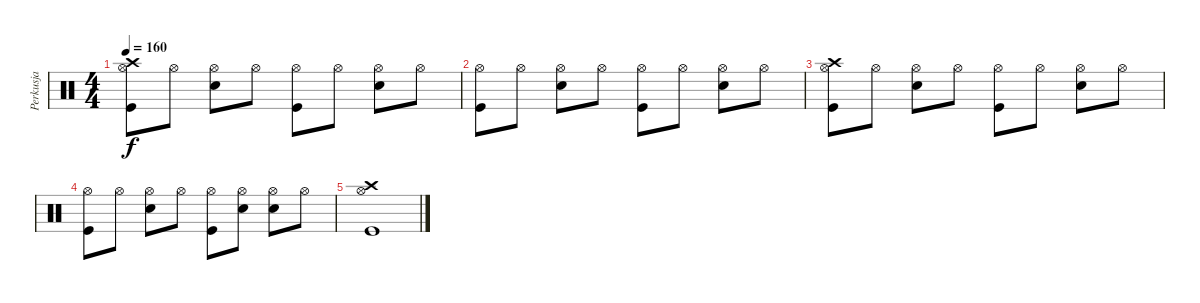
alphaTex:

\track ("Perkusja" "Perkusja") {instrument percussion}
\staff {score}
\articulation defaults
\ts (4 4)
\tempo 160
\clef neutral
\ks c
("Hi-Hat (open)" "Crash high (hit)" "Kick (hit)").8{dy f} "Hi-Hat (open)".8 ("Hi-Hat (open)" "Electric Snare (hit)").8 "Hi-Hat (open)".8 ("Hi-Hat (open)" "Kick (hit)").8 "Hi-Hat (open)".8 ("Hi-Hat (open)" "Electric Snare (hit)").8 "Hi-Hat (open)".8 |
("Hi-Hat (open)" "Kick (hit)").8 "Hi-Hat (open)".8 ("Hi-Hat (open)" "Electric Snare (hit)").8 "Hi-Hat (open)".8 ("Hi-Hat (open)" "Kick (hit)").8 "Hi-Hat (open)".8 ("Hi-Hat (open)" "Electric Snare (hit)").8 "Hi-Hat (open)".8 |
("Hi-Hat (open)" "Crash high (hit)" "Kick (hit)").8 "Hi-Hat (open)".8 ("Hi-Hat (open)" "Electric Snare (hit)").8 "Hi-Hat (open)".8 ("Hi-Hat (open)" "Kick (hit)").8 "Hi-Hat (open)".8 ("Hi-Hat (open)" "Electric Snare (hit)").8 "Hi-Hat (open)".8 |
("Hi-Hat (open)" "Kick (hit)").8 "Hi-Hat (open)".8 ("Hi-Hat (open)" "Electric Snare (hit)").8 "Hi-Hat (open)".8 ("Hi-Hat (open)" "Kick (hit)").8 ("Hi-Hat (open)" "Electric Snare (hit)").8 ("Hi-Hat (open)" "Electric Snare (hit)").8 "Hi-Hat (open)".8 |
("Hi-Hat (open)" "Crash high (hit)" "Kick (hit)").1
